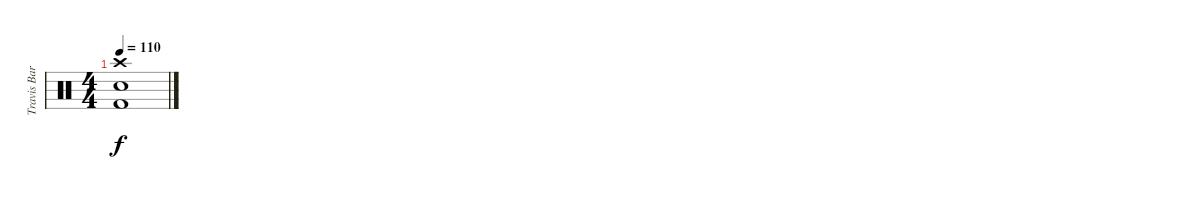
\track ("Travis Barker (Drums)" "Travis Bar") {instrument percussion}
\staff {score}
\articulation defaults
\ts (4 4)
\tempo 110
\clef neutral
\ks c
("Crash high (hit)" "Electric Snare (hit)" "Kick (hit) 2").1{dy f}
